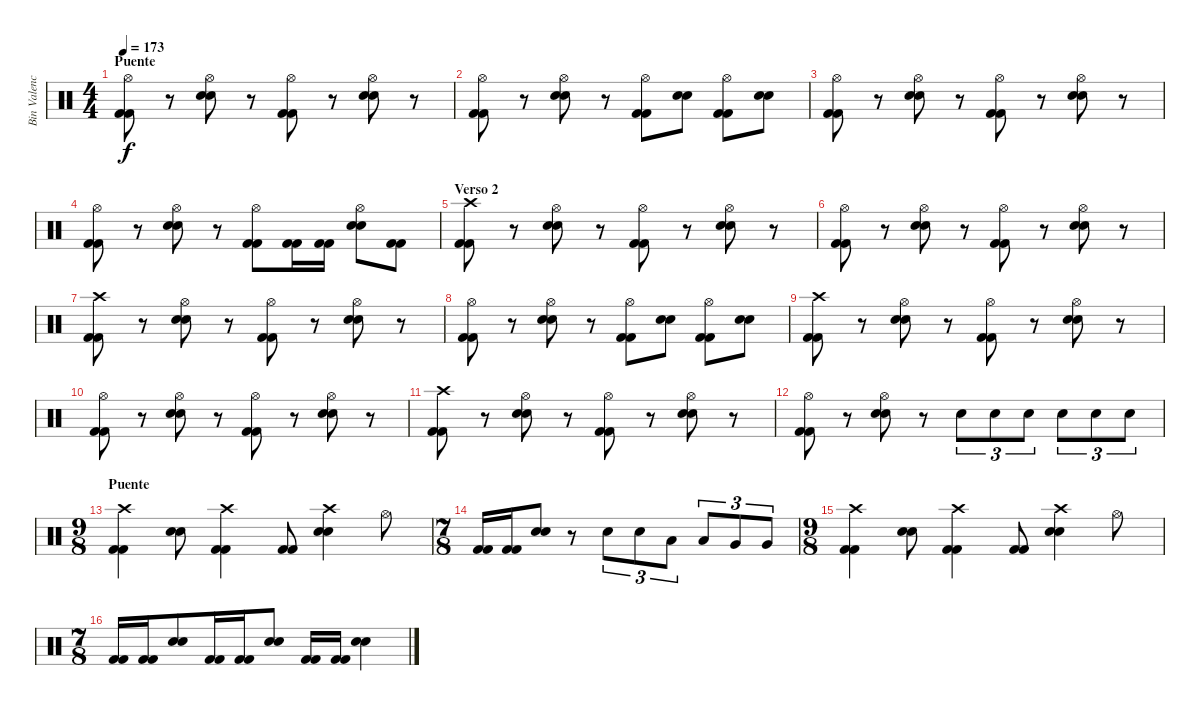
\track ("Bin Valencia (Bateria)" "Bin Valenc") {instrument percussion}
\staff {score}
\articulation defaults
\ts (4 4)
\section ("" "Puente")
\tempo 173
\clef neutral
\ks c
("Hi-Hat (open)" "Kick (hit) 2" "Kick (hit) 2").8{dy f} r.8 ("Hi-Hat (open)" "Snare (hit) 2" "Snare (hit) 2").8 r.8 ("Hi-Hat (open)" "Kick (hit) 2" "Kick (hit) 2").8 r.8 ("Hi-Hat (open)" "Snare (hit) 2" "Snare (hit) 2").8 r.8 |
("Hi-Hat (open)" "Kick (hit) 2" "Kick (hit) 2").8 r.8 ("Hi-Hat (open)" "Snare (hit) 2" "Snare (hit) 2").8 r.8 ("Hi-Hat (open)" "Kick (hit) 2" "Kick (hit) 2").8 ("Snare (hit) 2" "Snare (hit) 2").8 ("Hi-Hat (open)" "Kick (hit) 2" "Kick (hit) 2").8 ("Snare (hit) 2" "Snare (hit) 2").8 |
("Hi-Hat (open)" "Kick (hit) 2" "Kick (hit) 2").8 r.8 ("Hi-Hat (open)" "Snare (hit) 2" "Snare (hit) 2").8 r.8 ("Hi-Hat (open)" "Kick (hit) 2" "Kick (hit) 2").8 r.8 ("Hi-Hat (open)" "Snare (hit) 2" "Snare (hit) 2").8 r.8 |
("Hi-Hat (open)" "Kick (hit) 2" "Kick (hit) 2").8 r.8 ("Hi-Hat (open)" "Snare (hit) 2" "Snare (hit) 2").8 r.8 ("Hi-Hat (open)" "Kick (hit) 2" "Kick (hit) 2").8 ("Kick (hit) 2" "Kick (hit) 2").16 ("Kick (hit) 2" "Kick (hit) 2").16 ("Hi-Hat (open)" "Snare (hit) 2" "Snare (hit) 2").8 ("Kick (hit) 2" "Kick (hit) 2").8 |
\section ("" "Verso 2")
("Crash high (hit)" "Kick (hit) 2" "Kick (hit) 2").8 r.8 ("Hi-Hat (open)" "Snare (hit) 2" "Snare (hit) 2").8 r.8 ("Hi-Hat (open)" "Kick (hit) 2" "Kick (hit) 2").8 r.8 ("Hi-Hat (open)" "Snare (hit) 2" "Snare (hit) 2").8 r.8 |
("Hi-Hat (open)" "Kick (hit) 2" "Kick (hit) 2").8 r.8 ("Hi-Hat (open)" "Snare (hit) 2" "Snare (hit) 2").8 r.8 ("Hi-Hat (open)" "Kick (hit) 2" "Kick (hit) 2").8 r.8 ("Hi-Hat (open)" "Snare (hit) 2" "Snare (hit) 2").8 r.8 |
("Crash high (hit)" "Kick (hit) 2" "Kick (hit) 2").8 r.8 ("Hi-Hat (open)" "Snare (hit) 2" "Snare (hit) 2").8 r.8 ("Hi-Hat (open)" "Kick (hit) 2" "Kick (hit) 2").8 r.8 ("Hi-Hat (open)" "Snare (hit) 2" "Snare (hit) 2").8 r.8 |
("Hi-Hat (open)" "Kick (hit) 2" "Kick (hit) 2").8 r.8 ("Hi-Hat (open)" "Snare (hit) 2" "Snare (hit) 2").8 r.8 ("Hi-Hat (open)" "Kick (hit) 2" "Kick (hit) 2").8 ("Snare (hit) 2" "Snare (hit) 2").8 ("Hi-Hat (open)" "Kick (hit) 2" "Kick (hit) 2").8 ("Snare (hit) 2" "Snare (hit) 2").8 |
("Crash high (hit)" "Kick (hit) 2" "Kick (hit) 2").8 r.8 ("Hi-Hat (open)" "Snare (hit) 2" "Snare (hit) 2").8 r.8 ("Hi-Hat (open)" "Kick (hit) 2" "Kick (hit) 2").8 r.8 ("Hi-Hat (open)" "Snare (hit) 2" "Snare (hit) 2").8 r.8 |
("Hi-Hat (open)" "Kick (hit) 2" "Kick (hit) 2").8 r.8 ("Hi-Hat (open)" "Snare (hit) 2" "Snare (hit) 2").8 r.8 ("Hi-Hat (open)" "Kick (hit) 2" "Kick (hit) 2").8 r.8 ("Hi-Hat (open)" "Snare (hit) 2" "Snare (hit) 2").8 r.8 |
("Crash high (hit)" "Kick (hit) 2" "Kick (hit) 2").8 r.8 ("Hi-Hat (open)" "Snare (hit) 2" "Snare (hit) 2").8 r.8 ("Hi-Hat (open)" "Kick (hit) 2" "Kick (hit) 2").8 r.8 ("Hi-Hat (open)" "Snare (hit) 2" "Snare (hit) 2").8 r.8 |
("Hi-Hat (open)" "Kick (hit) 2" "Kick (hit) 2").8 r.8 ("Hi-Hat (open)" "Snare (hit) 2" "Snare (hit) 2").8 r.8 "Snare (hit) 2".8{tu (3 2)} "Snare (hit) 2".8{tu (3 2)} "Snare (hit) 2".8{tu (3 2)} "Snare (hit) 2".8{tu (3 2)} "Snare (hit) 2".8{tu (3 2)} "Snare (hit) 2".8{tu (3 2)} |
\ts (9 8)
\section ("" "Puente")
("Crash high (hit)" "Kick (hit) 2" "Kick (hit) 2").4 ("Snare (hit) 2" "Snare (hit) 2").8 ("Crash high (hit)" "Kick (hit) 2" "Kick (hit) 2").4 ("Kick (hit) 2" "Kick (hit) 2").8 ("Crash high (hit)" "Snare (hit) 2" "Snare (hit) 2").4 "Hi-Hat (open)".8 |
\ts (7 8)
("Kick (hit) 2" "Kick (hit) 2").16 ("Kick (hit) 2" "Kick (hit) 2").16 ("Snare (hit) 2" "Snare (hit) 2").8 r.8 "Snare (hit) 2".8{tu (3 2)} "Snare (hit) 2".8{tu (3 2)} "Low Tom (hit)".8{tu (3 2)} "Low Tom (hit)".8{tu (3 2)} "Very Low Tom (hit)".8{tu (3 2)} "Very Low Tom (hit)".8{tu (3 2)} |
\ts (9 8)
("Crash high (hit)" "Kick (hit) 2" "Kick (hit) 2").4 ("Snare (hit) 2" "Snare (hit) 2").8 ("Crash high (hit)" "Kick (hit) 2" "Kick (hit) 2").4 ("Kick (hit) 2" "Kick (hit) 2").8 ("Crash high (hit)" "Snare (hit) 2" "Snare (hit) 2").4 "Hi-Hat (open)".8 |
\ts (7 8)
("Kick (hit) 2" "Kick (hit) 2").16 ("Kick (hit) 2" "Kick (hit) 2").16 ("Snare (hit) 2" "Snare (hit) 2").8 ("Kick (hit) 2" "Kick (hit) 2").16 ("Kick (hit) 2" "Kick (hit) 2").16 ("Snare (hit) 2" "Snare (hit) 2").8 ("Kick (hit) 2" "Kick (hit) 2").16 ("Kick (hit) 2" "Kick (hit) 2").16 ("Snare (hit) 2" "Snare (hit) 2").4
